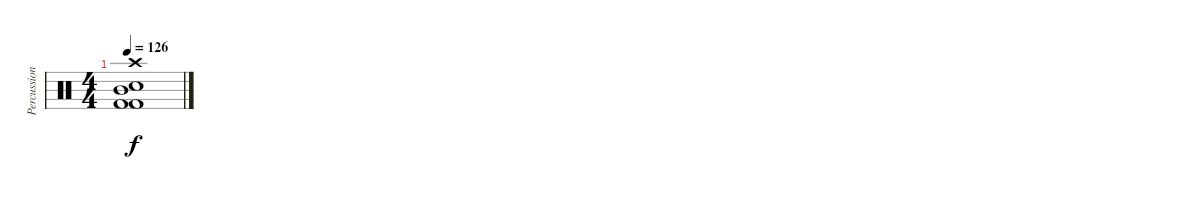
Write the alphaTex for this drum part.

\track ("Percussion" "Percussion") {instrument percussion}
\staff {score}
\articulation defaults
\ts (4 4)
\tempo 126
\clef neutral
\ks c
("Crash high (hit)" "Kick (hit) 2" "Kick (hit) 2" "Mid Tom (hit)" "Electric Snare (hit)").1{dy f}
